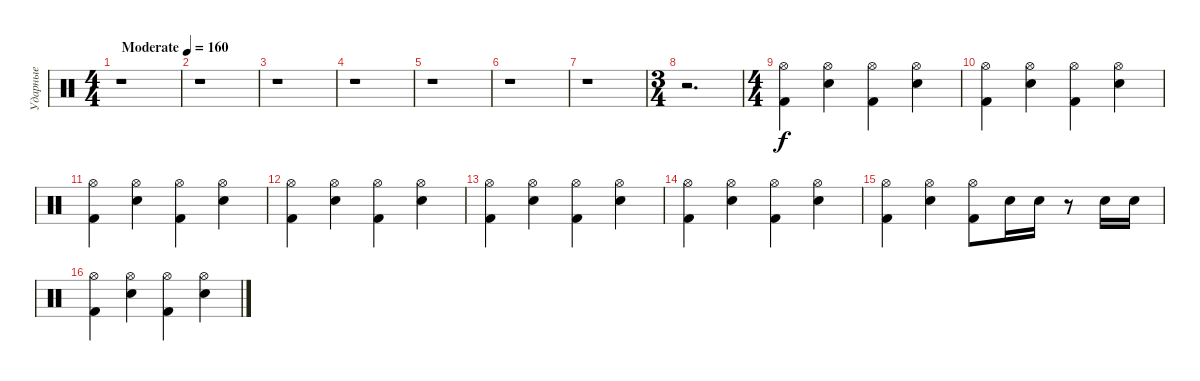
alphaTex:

\track ("Ударные" "Ударные") {instrument percussion}
\staff {score}
\articulation defaults
\ts (4 4)
\tempo (160 "Moderate")
\clef neutral
\ks c
r.1{dy f} |
r.1 |
r.1 |
r.1 |
r.1 |
r.1 |
r.1 |
\ts (3 4)
r.2{d} |
\ts (4 4)
("Hi-Hat (open)" "Kick (hit) 2").4 ("Hi-Hat (open)" "Snare (hit) 2").4 ("Hi-Hat (open)" "Kick (hit) 2").4 ("Hi-Hat (open)" "Snare (hit) 2").4 |
("Hi-Hat (open)" "Kick (hit) 2").4 ("Hi-Hat (open)" "Snare (hit) 2").4 ("Hi-Hat (open)" "Kick (hit) 2").4 ("Hi-Hat (open)" "Snare (hit) 2").4 |
("Hi-Hat (open)" "Kick (hit) 2").4 ("Hi-Hat (open)" "Snare (hit) 2").4 ("Hi-Hat (open)" "Kick (hit) 2").4 ("Hi-Hat (open)" "Snare (hit) 2").4 |
("Hi-Hat (open)" "Kick (hit) 2").4 ("Hi-Hat (open)" "Snare (hit) 2").4 ("Hi-Hat (open)" "Kick (hit) 2").4 ("Hi-Hat (open)" "Snare (hit) 2").4 |
("Hi-Hat (open)" "Kick (hit) 2").4 ("Hi-Hat (open)" "Snare (hit) 2").4 ("Hi-Hat (open)" "Kick (hit) 2").4 ("Hi-Hat (open)" "Snare (hit) 2").4 |
("Hi-Hat (open)" "Kick (hit) 2").4 ("Hi-Hat (open)" "Snare (hit) 2").4 ("Hi-Hat (open)" "Kick (hit) 2").4 ("Hi-Hat (open)" "Snare (hit) 2").4 |
("Hi-Hat (open)" "Kick (hit) 2").4 ("Hi-Hat (open)" "Snare (hit) 2").4 ("Hi-Hat (open)" "Kick (hit) 2").8 "Snare (hit) 2".16 "Snare (hit) 2".16 r.8 "Snare (hit) 2".16 "Snare (hit) 2".16 |
("Hi-Hat (open)" "Kick (hit) 2").4 ("Hi-Hat (open)" "Snare (hit) 2").4 ("Hi-Hat (open)" "Kick (hit) 2").4 ("Hi-Hat (open)" "Snare (hit) 2").4
